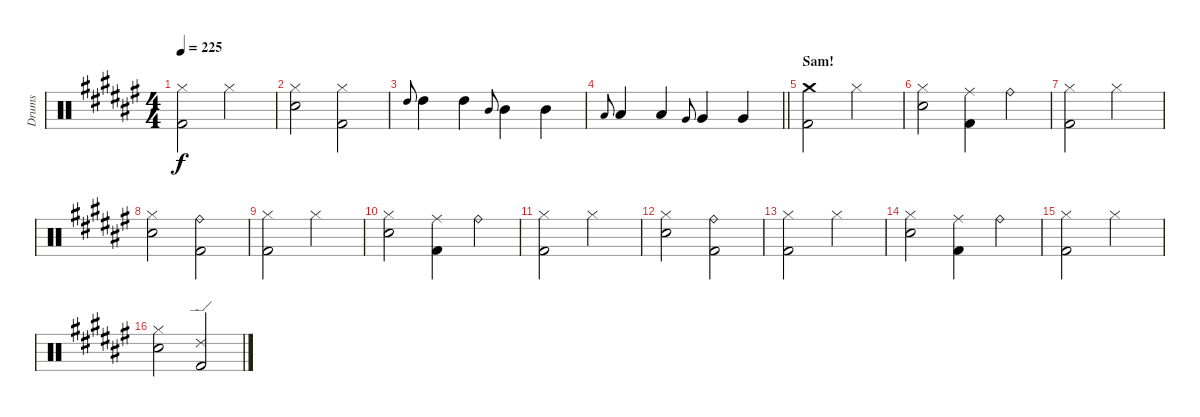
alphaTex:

\track ("Drums" "Drums") {instrument percussion}
\staff {score}
\articulation defaults
\ts (4 4)
\tempo 225
\clef neutral
\ks f#
("Hi-Hat (closed)" "Kick (hit) 2").2{dy f} "Hi-Hat (closed)".2 |
("Hi-Hat (closed)" "Snare (hit) 2").2 ("Hi-Hat (closed)" "Kick (hit) 2").2 |
"High Tom (hit)".8{gr onbeat} "High Tom (hit)".4 "High Tom (hit)".4 "Mid Tom (hit)".8{gr onbeat} "Mid Tom (hit)".4 "Mid Tom (hit)".4 |
\barLineRight lightlight "Low Tom (hit)".8{gr onbeat} "Low Tom (hit)".4 "Low Tom (hit)".4 "Very Low Tom (hit)".8{gr onbeat} "Very Low Tom (hit)".4 "Very Low Tom (hit)".4
|
\section ("" "Sam!")
("Crash medium (hit)" "Kick (hit) 2").2 "Hi-Hat (closed)".2 |
("Hi-Hat (closed)" "Snare (hit) 2").2 ("Ride (middle)" "Kick (hit) 2").4 "Ride (bell)".4 |
("Hi-Hat (closed)" "Kick (hit) 2").2 "Hi-Hat (closed)".2 |
("Hi-Hat (closed)" "Snare (hit) 2").2 ("Ride (bell)" "Kick (hit) 2").2 |
("Hi-Hat (closed)" "Kick (hit) 2").2 "Hi-Hat (closed)".2 |
("Hi-Hat (closed)" "Snare (hit) 2").2 ("Ride (middle)" "Kick (hit) 2").4 "Ride (bell)".4 |
("Hi-Hat (closed)" "Kick (hit) 2").2 "Hi-Hat (closed)".2 |
("Hi-Hat (closed)" "Snare (hit) 2").2 ("Ride (bell)" "Kick (hit) 2").2 |
("Hi-Hat (closed)" "Kick (hit) 2").2 "Hi-Hat (closed)".2 |
("Hi-Hat (closed)" "Snare (hit) 2").2 ("Ride (middle)" "Kick (hit) 2").4 "Ride (bell)".4 |
("Hi-Hat (closed)" "Kick (hit) 2").2 "Hi-Hat (closed)".2 |
("Hi-Hat (closed)" "Snare (hit) 2").2 ("Ride (edge) 2" "Kick (hit) 2").2
